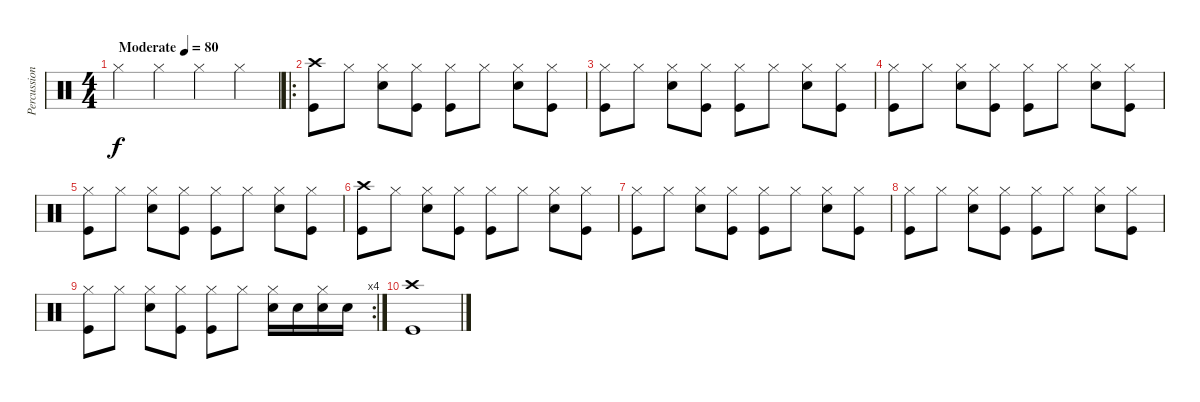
\track ("Percussion" "Percussion") {instrument percussion}
\staff {score}
\articulation defaults
\ts (4 4)
\tempo (80 "Moderate")
\clef neutral
\ks c "Hi-Hat (closed)".4{dy f} "Hi-Hat (closed)".4 "Hi-Hat (closed)".4 "Hi-Hat (closed)".4
|
\ro
("Kick (hit)" "Crash high (hit)").8 "Hi-Hat (closed)".8 ("Snare (hit) 2" "Hi-Hat (closed)").8 ("Kick (hit)" "Hi-Hat (closed)").8 ("Kick (hit)" "Hi-Hat (closed)").8 "Hi-Hat (closed)".8 ("Snare (hit) 2" "Hi-Hat (closed)").8 ("Kick (hit)" "Hi-Hat (closed)").8 |
("Kick (hit)" "Hi-Hat (closed)").8 "Hi-Hat (closed)".8 ("Snare (hit) 2" "Hi-Hat (closed)").8 ("Kick (hit)" "Hi-Hat (closed)").8 ("Kick (hit)" "Hi-Hat (closed)").8 "Hi-Hat (closed)".8 ("Snare (hit) 2" "Hi-Hat (closed)").8 ("Kick (hit)" "Hi-Hat (closed)").8 |
("Kick (hit)" "Hi-Hat (closed)").8 "Hi-Hat (closed)".8 ("Snare (hit) 2" "Hi-Hat (closed)").8 ("Kick (hit)" "Hi-Hat (closed)").8 ("Kick (hit)" "Hi-Hat (closed)").8 "Hi-Hat (closed)".8 ("Snare (hit) 2" "Hi-Hat (closed)").8 ("Kick (hit)" "Hi-Hat (closed)").8 |
("Kick (hit)" "Hi-Hat (closed)").8 "Hi-Hat (closed)".8 ("Snare (hit) 2" "Hi-Hat (closed)").8 ("Kick (hit)" "Hi-Hat (closed)").8 ("Kick (hit)" "Hi-Hat (closed)").8 "Hi-Hat (closed)".8 ("Snare (hit) 2" "Hi-Hat (closed)").8 ("Kick (hit)" "Hi-Hat (closed)").8 |
("Kick (hit)" "Crash high (hit)").8 "Hi-Hat (closed)".8 ("Snare (hit) 2" "Hi-Hat (closed)").8 ("Kick (hit)" "Hi-Hat (closed)").8 ("Kick (hit)" "Hi-Hat (closed)").8 "Hi-Hat (closed)".8 ("Snare (hit) 2" "Hi-Hat (closed)").8 ("Kick (hit)" "Hi-Hat (closed)").8 |
("Kick (hit)" "Hi-Hat (closed)").8 "Hi-Hat (closed)".8 ("Snare (hit) 2" "Hi-Hat (closed)").8 ("Kick (hit)" "Hi-Hat (closed)").8 ("Kick (hit)" "Hi-Hat (closed)").8 "Hi-Hat (closed)".8 ("Snare (hit) 2" "Hi-Hat (closed)").8 ("Kick (hit)" "Hi-Hat (closed)").8 |
("Kick (hit)" "Hi-Hat (closed)").8 "Hi-Hat (closed)".8 ("Snare (hit) 2" "Hi-Hat (closed)").8 ("Kick (hit)" "Hi-Hat (closed)").8 ("Kick (hit)" "Hi-Hat (closed)").8 "Hi-Hat (closed)".8 ("Snare (hit) 2" "Hi-Hat (closed)").8 ("Kick (hit)" "Hi-Hat (closed)").8 |
\rc 4
("Kick (hit)" "Hi-Hat (closed)").8 "Hi-Hat (closed)".8 ("Snare (hit) 2" "Hi-Hat (closed)").8 ("Kick (hit)" "Hi-Hat (closed)").8 ("Kick (hit)" "Hi-Hat (closed)").8 "Hi-Hat (closed)".8 ("Snare (hit) 2" "Hi-Hat (closed)").16 "Snare (hit) 2".16 ("Snare (hit) 2" "Hi-Hat (closed)").16 "Snare (hit) 2".16 |
("Kick (hit)" "Crash high (hit)").1
